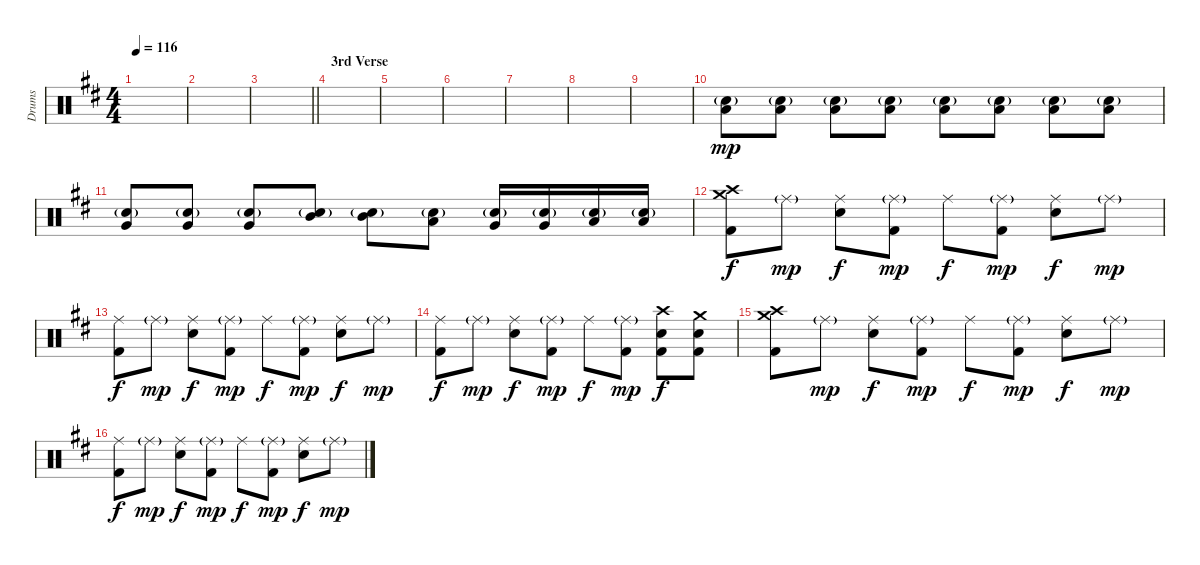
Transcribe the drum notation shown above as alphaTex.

\track ("Drums" "Drums") {instrument percussion}
\staff {score}
\articulation defaults
\ts (4 4)
\tempo 116
\clef neutral
\ks d
|
|
\barLineRight lightlight
|
\section ("" "3rd Verse")
|
|
|
|
|
|
("Low Floor Tom (hit)" "Electric Snare (hit)"{g}).8{dy mp} ("Low Floor Tom (hit)" "Electric Snare (hit)"{g}).8 ("Low Floor Tom (hit)" "Electric Snare (hit)"{g}).8 ("Low Floor Tom (hit)" "Electric Snare (hit)"{g}).8 ("Low Floor Tom (hit)" "Electric Snare (hit)"{g}).8 ("Low Floor Tom (hit)" "Electric Snare (hit)"{g}).8 ("Low Floor Tom (hit)" "Electric Snare (hit)"{g}).8 ("Low Floor Tom (hit)" "Electric Snare (hit)"{g}).8 |
("Very Low Tom (hit)" "Electric Snare (hit)"{g}).8 ("Very Low Tom (hit)" "Electric Snare (hit)"{g}).8 ("Very Low Tom (hit)" "Electric Snare (hit)"{g}).8 ("Mid Tom (hit)" "Electric Snare (hit)"{g}).8 ("Mid Tom (hit)" "Electric Snare (hit)"{g}).8 ("Low Tom (hit)" "Electric Snare (hit)"{g}).8 ("Very Low Tom (hit)" "Electric Snare (hit)"{g}).16 ("Very Low Tom (hit)" "Electric Snare (hit)"{g}).16 ("Low Floor Tom (hit)" "Electric Snare (hit)"{g}).16 ("Low Floor Tom (hit)" "Electric Snare (hit)"{g}).16 |
("Crash high (hit)" "Crash medium (hit)" "Kick (hit) 2").8{dy f} "Ride (middle)"{g}.8{dy mp} ("Ride (middle)" "Snare (hit) 2").8{dy f} ("Ride (middle)"{g} "Kick (hit) 2").8{dy mp} "Ride (middle)".8{dy f} ("Ride (middle)"{g} "Kick (hit) 2").8{dy mp} ("Ride (middle)" "Snare (hit) 2").8{dy f} "Ride (middle)"{g}.8{dy mp} |
("Ride (middle)" "Kick (hit) 2").8{dy f} "Ride (middle)"{g}.8{dy mp} ("Ride (middle)" "Snare (hit) 2").8{dy f} ("Ride (middle)"{g} "Kick (hit) 2").8{dy mp} "Ride (middle)".8{dy f} ("Ride (middle)"{g} "Kick (hit) 2").8{dy mp} ("Ride (middle)" "Snare (hit) 2").8{dy f} "Ride (middle)"{g}.8{dy mp} |
("Ride (middle)" "Kick (hit) 2").8{dy f} "Ride (middle)"{g}.8{dy mp} ("Ride (middle)" "Snare (hit) 2").8{dy f} ("Ride (middle)"{g} "Kick (hit) 2").8{dy mp} "Ride (middle)".8{dy f} ("Ride (middle)"{g} "Kick (hit) 2").8{dy mp} ("Crash high (hit)" "Snare (hit) 2" "Kick (hit) 2").8{dy f} ("Crash medium (hit)" "Snare (hit) 2" "Kick (hit) 2").8 |
("Crash high (hit)" "Crash medium (hit)" "Kick (hit) 2").8 "Ride (middle)"{g}.8{dy mp} ("Ride (middle)" "Snare (hit) 2").8{dy f} ("Ride (middle)"{g} "Kick (hit) 2").8{dy mp} "Ride (middle)".8{dy f} ("Ride (middle)"{g} "Kick (hit) 2").8{dy mp} ("Ride (middle)" "Snare (hit) 2").8{dy f} "Ride (middle)"{g}.8{dy mp} |
("Ride (middle)" "Kick (hit) 2").8{dy f} "Ride (middle)"{g}.8{dy mp} ("Ride (middle)" "Snare (hit) 2").8{dy f} ("Ride (middle)"{g} "Kick (hit) 2").8{dy mp} "Ride (middle)".8{dy f} ("Ride (middle)"{g} "Kick (hit) 2").8{dy mp} ("Ride (middle)" "Snare (hit) 2").8{dy f} "Ride (middle)"{g}.8{dy mp}
